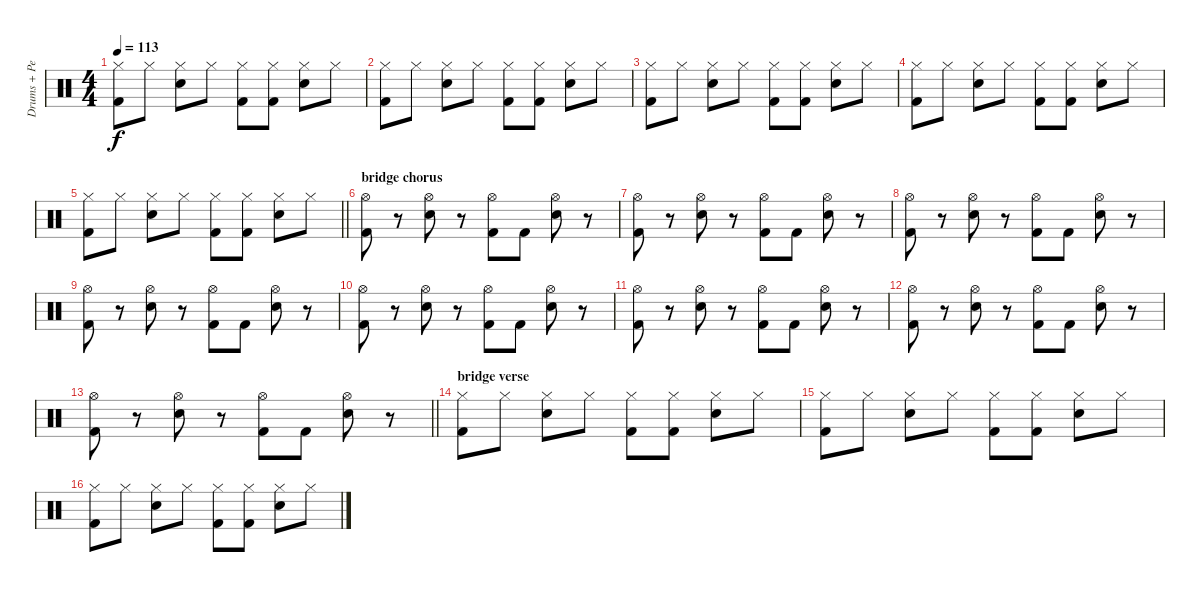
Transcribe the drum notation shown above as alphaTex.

\track ("Drums + Percussion" "Drums + Pe") {instrument percussion}
\staff {score}
\articulation defaults
\ts (4 4)
\tempo 113
\clef neutral
\ks c
("Hi-Hat (closed)" "Kick (hit) 2").8{dy f} "Hi-Hat (closed)".8 ("Hi-Hat (closed)" "Snare (hit) 2").8 "Hi-Hat (closed)".8 ("Hi-Hat (closed)" "Kick (hit) 2").8 ("Hi-Hat (closed)" "Kick (hit) 2").8 ("Hi-Hat (closed)" "Snare (hit) 2").8 "Hi-Hat (closed)".8 |
("Hi-Hat (closed)" "Kick (hit) 2").8 "Hi-Hat (closed)".8 ("Hi-Hat (closed)" "Snare (hit) 2").8 "Hi-Hat (closed)".8 ("Hi-Hat (closed)" "Kick (hit) 2").8 ("Hi-Hat (closed)" "Kick (hit) 2").8 ("Hi-Hat (closed)" "Snare (hit) 2").8 "Hi-Hat (closed)".8 |
("Hi-Hat (closed)" "Kick (hit) 2").8 "Hi-Hat (closed)".8 ("Hi-Hat (closed)" "Snare (hit) 2").8 "Hi-Hat (closed)".8 ("Hi-Hat (closed)" "Kick (hit) 2").8 ("Hi-Hat (closed)" "Kick (hit) 2").8 ("Hi-Hat (closed)" "Snare (hit) 2").8 "Hi-Hat (closed)".8 |
("Hi-Hat (closed)" "Kick (hit) 2").8 "Hi-Hat (closed)".8 ("Hi-Hat (closed)" "Snare (hit) 2").8 "Hi-Hat (closed)".8 ("Hi-Hat (closed)" "Kick (hit) 2").8 ("Hi-Hat (closed)" "Kick (hit) 2").8 ("Hi-Hat (closed)" "Snare (hit) 2").8 "Hi-Hat (closed)".8 |
\barLineRight lightlight
("Hi-Hat (closed)" "Kick (hit) 2").8 "Hi-Hat (closed)".8 ("Hi-Hat (closed)" "Snare (hit) 2").8 "Hi-Hat (closed)".8 ("Hi-Hat (closed)" "Kick (hit) 2").8 ("Hi-Hat (closed)" "Kick (hit) 2").8 ("Hi-Hat (closed)" "Snare (hit) 2").8 "Hi-Hat (closed)".8 |
\section ("" "bridge chorus")
("Hi-Hat (open)" "Kick (hit) 2").8 r.8 ("Hi-Hat (open)" "Snare (hit) 2").8 r.8 ("Hi-Hat (open)" "Kick (hit) 2").8 "Kick (hit) 2".8 ("Hi-Hat (open)" "Snare (hit) 2").8 r.8 |
("Hi-Hat (open)" "Kick (hit) 2").8 r.8 ("Hi-Hat (open)" "Snare (hit) 2").8 r.8 ("Hi-Hat (open)" "Kick (hit) 2").8 "Kick (hit) 2".8 ("Hi-Hat (open)" "Snare (hit) 2").8 r.8 |
("Hi-Hat (open)" "Kick (hit) 2").8 r.8 ("Hi-Hat (open)" "Snare (hit) 2").8 r.8 ("Hi-Hat (open)" "Kick (hit) 2").8 "Kick (hit) 2".8 ("Hi-Hat (open)" "Snare (hit) 2").8 r.8 |
("Hi-Hat (open)" "Kick (hit) 2").8 r.8 ("Hi-Hat (open)" "Snare (hit) 2").8 r.8 ("Hi-Hat (open)" "Kick (hit) 2").8 "Kick (hit) 2".8 ("Hi-Hat (open)" "Snare (hit) 2").8 r.8 |
("Hi-Hat (open)" "Kick (hit) 2").8 r.8 ("Hi-Hat (open)" "Snare (hit) 2").8 r.8 ("Hi-Hat (open)" "Kick (hit) 2").8 "Kick (hit) 2".8 ("Hi-Hat (open)" "Snare (hit) 2").8 r.8 |
("Hi-Hat (open)" "Kick (hit) 2").8 r.8 ("Hi-Hat (open)" "Snare (hit) 2").8 r.8 ("Hi-Hat (open)" "Kick (hit) 2").8 "Kick (hit) 2".8 ("Hi-Hat (open)" "Snare (hit) 2").8 r.8 |
("Hi-Hat (open)" "Kick (hit) 2").8 r.8 ("Hi-Hat (open)" "Snare (hit) 2").8 r.8 ("Hi-Hat (open)" "Kick (hit) 2").8 "Kick (hit) 2".8 ("Hi-Hat (open)" "Snare (hit) 2").8 r.8 |
\barLineRight lightlight
("Hi-Hat (open)" "Kick (hit) 2").8 r.8 ("Hi-Hat (open)" "Snare (hit) 2").8 r.8 ("Hi-Hat (open)" "Kick (hit) 2").8 "Kick (hit) 2".8 ("Hi-Hat (open)" "Snare (hit) 2").8 r.8 |
\section ("" "bridge verse")
("Hi-Hat (closed)" "Kick (hit) 2").8 "Hi-Hat (closed)".8 ("Hi-Hat (closed)" "Snare (hit) 2").8 "Hi-Hat (closed)".8 ("Hi-Hat (closed)" "Kick (hit) 2").8 ("Hi-Hat (closed)" "Kick (hit) 2").8 ("Hi-Hat (closed)" "Snare (hit) 2").8 "Hi-Hat (closed)".8 |
("Hi-Hat (closed)" "Kick (hit) 2").8 "Hi-Hat (closed)".8 ("Hi-Hat (closed)" "Snare (hit) 2").8 "Hi-Hat (closed)".8 ("Hi-Hat (closed)" "Kick (hit) 2").8 ("Hi-Hat (closed)" "Kick (hit) 2").8 ("Hi-Hat (closed)" "Snare (hit) 2").8 "Hi-Hat (closed)".8 |
("Hi-Hat (closed)" "Kick (hit) 2").8 "Hi-Hat (closed)".8 ("Hi-Hat (closed)" "Snare (hit) 2").8 "Hi-Hat (closed)".8 ("Hi-Hat (closed)" "Kick (hit) 2").8 ("Hi-Hat (closed)" "Kick (hit) 2").8 ("Hi-Hat (closed)" "Snare (hit) 2").8 "Hi-Hat (closed)".8
